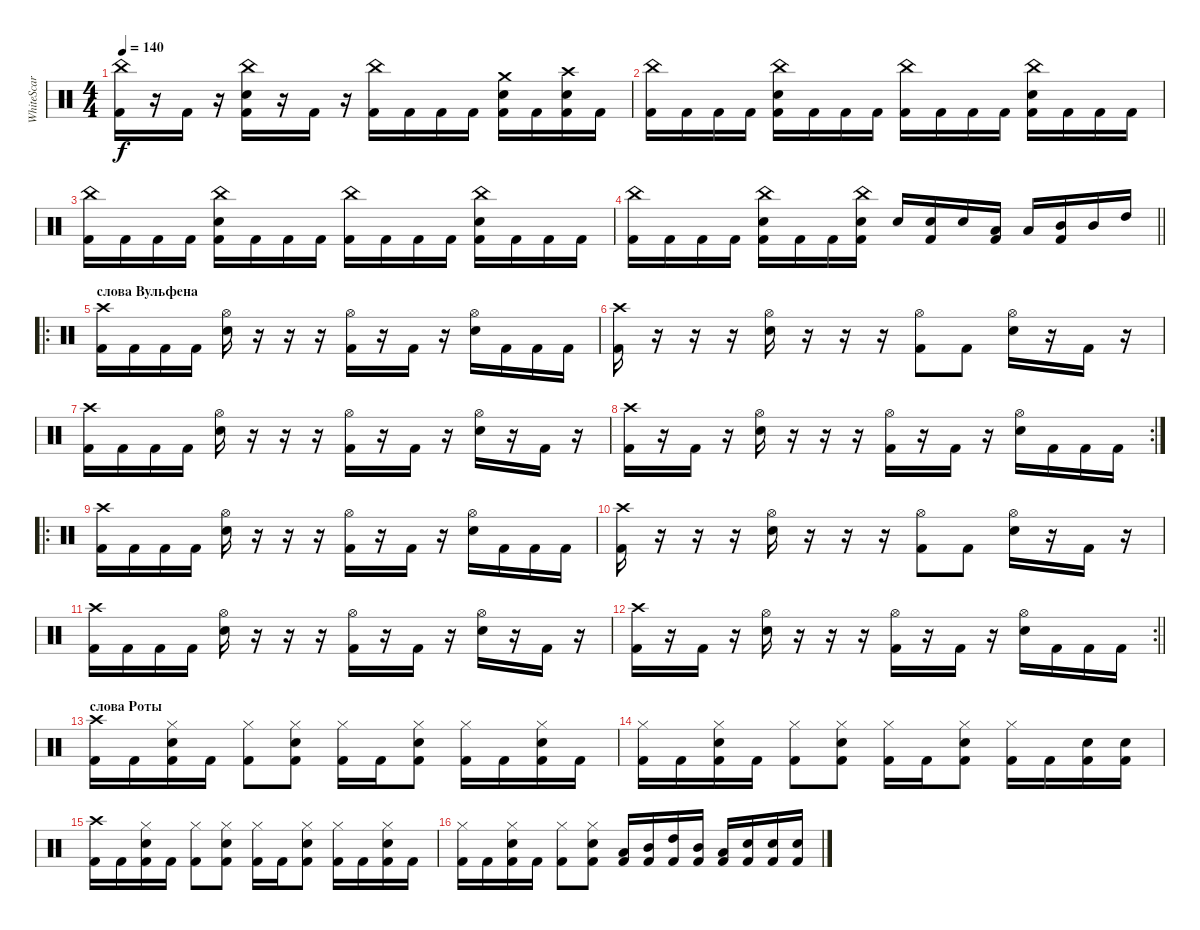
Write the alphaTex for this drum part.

\track ("WhiteScar " "WhiteScar ") {instrument percussion}
\staff {score}
\articulation defaults
\ts (4 4)
\tempo 140
\clef neutral
\ks c
("China (hit)" "Kick (hit) 2").16{dy f} r.16 "Kick (hit) 2".16 r.16 ("China (hit)" "Snare (hit) 2" "Kick (hit) 2").16 r.16 "Kick (hit) 2".16 r.16 ("China (hit)" "Kick (hit) 2").16 "Kick (hit) 2".16 "Kick (hit) 2".16 "Kick (hit) 2".16 ("Crash medium (hit)" "Snare (hit) 2" "Kick (hit) 2").16 "Kick (hit) 2".16 ("Crash high (hit)" "Snare (hit) 2" "Kick (hit) 2").16 "Kick (hit) 2".16 |
("China (hit)" "Kick (hit) 2").16 "Kick (hit) 2".16 "Kick (hit) 2".16 "Kick (hit) 2".16 ("China (hit)" "Snare (hit) 2" "Kick (hit) 2").16 "Kick (hit) 2".16 "Kick (hit) 2".16 "Kick (hit) 2".16 ("China (hit)" "Kick (hit) 2").16 "Kick (hit) 2".16 "Kick (hit) 2".16 "Kick (hit) 2".16 ("China (hit)" "Snare (hit) 2" "Kick (hit) 2").16 "Kick (hit) 2".16 "Kick (hit) 2".16 "Kick (hit) 2".16 |
("China (hit)" "Kick (hit) 2").16 "Kick (hit) 2".16 "Kick (hit) 2".16 "Kick (hit) 2".16 ("China (hit)" "Snare (hit) 2" "Kick (hit) 2").16 "Kick (hit) 2".16 "Kick (hit) 2".16 "Kick (hit) 2".16 ("China (hit)" "Kick (hit) 2").16 "Kick (hit) 2".16 "Kick (hit) 2".16 "Kick (hit) 2".16 ("China (hit)" "Snare (hit) 2" "Kick (hit) 2").16 "Kick (hit) 2".16 "Kick (hit) 2".16 "Kick (hit) 2".16 |
\barLineRight lightlight
("China (hit)" "Kick (hit) 2").16 "Kick (hit) 2".16 "Kick (hit) 2".16 "Kick (hit) 2".16 ("China (hit)" "Snare (hit) 2" "Kick (hit) 2").16 "Kick (hit) 2".16 "Kick (hit) 2".16 ("China (hit)" "Snare (hit) 2" "Kick (hit) 2").16 "Snare (hit) 2".16 ("Snare (hit) 2" "Kick (hit) 2").16 "Snare (hit) 2".16 ("Low Tom (hit)" "Kick (hit) 2").16 "Low Tom (hit)".16 ("Mid Tom (hit)" "Kick (hit) 2").16 "Mid Tom (hit)".16 "High Tom (hit)".16 |
\ro
\section ("" "слова Вульфена")
("Crash high (hit)" "Kick (hit) 2").16 "Kick (hit) 2".16 "Kick (hit) 2".16 "Kick (hit) 2".16 ("Hi-Hat (open)" "Snare (hit) 2").16 r.16 r.16 r.16 ("Hi-Hat (open)" "Kick (hit) 2").16 r.16 "Kick (hit) 2".16 r.16 ("Hi-Hat (open)" "Snare (hit) 2").16 "Kick (hit) 2".16 "Kick (hit) 2".16 "Kick (hit) 2".16 |
("Crash high (hit)" "Kick (hit) 2").16 r.16 r.16 r.16 ("Hi-Hat (open)" "Snare (hit) 2").16 r.16 r.16 r.16 ("Hi-Hat (open)" "Kick (hit) 2").8 "Kick (hit) 2".8 ("Hi-Hat (open)" "Snare (hit) 2").16 r.16 "Kick (hit) 2".16 r.16 |
("Crash high (hit)" "Kick (hit) 2").16 "Kick (hit) 2".16 "Kick (hit) 2".16 "Kick (hit) 2".16 ("Hi-Hat (open)" "Snare (hit) 2").16 r.16 r.16 r.16 ("Hi-Hat (open)" "Kick (hit) 2").16 r.16 "Kick (hit) 2".16 r.16 ("Hi-Hat (open)" "Snare (hit) 2").16 r.16 "Kick (hit) 2".16 r.16 |
\rc 2
("Crash high (hit)" "Kick (hit) 2").16 r.16 "Kick (hit) 2".16 r.16 ("Hi-Hat (open)" "Snare (hit) 2").16 r.16 r.16 r.16 ("Hi-Hat (open)" "Kick (hit) 2").16 r.16 "Kick (hit) 2".16 r.16 ("Hi-Hat (open)" "Snare (hit) 2").16 "Kick (hit) 2".16 "Kick (hit) 2".16 "Kick (hit) 2".16 |
\ro
("Crash high (hit)" "Kick (hit) 2").16 "Kick (hit) 2".16 "Kick (hit) 2".16 "Kick (hit) 2".16 ("Hi-Hat (open)" "Snare (hit) 2").16 r.16 r.16 r.16 ("Hi-Hat (open)" "Kick (hit) 2").16 r.16 "Kick (hit) 2".16 r.16 ("Hi-Hat (open)" "Snare (hit) 2").16 "Kick (hit) 2".16 "Kick (hit) 2".16 "Kick (hit) 2".16 |
("Crash high (hit)" "Kick (hit) 2").16 r.16 r.16 r.16 ("Hi-Hat (open)" "Snare (hit) 2").16 r.16 r.16 r.16 ("Hi-Hat (open)" "Kick (hit) 2").8 "Kick (hit) 2".8 ("Hi-Hat (open)" "Snare (hit) 2").16 r.16 "Kick (hit) 2".16 r.16 |
("Crash high (hit)" "Kick (hit) 2").16 "Kick (hit) 2".16 "Kick (hit) 2".16 "Kick (hit) 2".16 ("Hi-Hat (open)" "Snare (hit) 2").16 r.16 r.16 r.16 ("Hi-Hat (open)" "Kick (hit) 2").16 r.16 "Kick (hit) 2".16 r.16 ("Hi-Hat (open)" "Snare (hit) 2").16 r.16 "Kick (hit) 2".16 r.16 |
\rc 2
\barLineRight lightlight
("Crash high (hit)" "Kick (hit) 2").16 r.16 "Kick (hit) 2".16 r.16 ("Hi-Hat (open)" "Snare (hit) 2").16 r.16 r.16 r.16 ("Hi-Hat (open)" "Kick (hit) 2").16 r.16 "Kick (hit) 2".16 r.16 ("Hi-Hat (open)" "Snare (hit) 2").16 "Kick (hit) 2".16 "Kick (hit) 2".16 "Kick (hit) 2".16 |
\section ("" "слова Роты")
("Crash high (hit)" "Kick (hit) 2").16 "Kick (hit) 2".16 ("Snare (hit) 2" "Hi-Hat (closed)" "Kick (hit) 2").16 "Kick (hit) 2".16 ("Hi-Hat (closed)" "Kick (hit) 2").8 ("Snare (hit) 2" "Hi-Hat (closed)" "Kick (hit) 2").8 ("Hi-Hat (closed)" "Kick (hit) 2").16 "Kick (hit) 2".16 ("Snare (hit) 2" "Hi-Hat (closed)" "Kick (hit) 2").8 ("Hi-Hat (closed)" "Kick (hit) 2").16 "Kick (hit) 2".16 ("Snare (hit) 2" "Hi-Hat (closed)" "Kick (hit) 2").16 "Kick (hit) 2".16 |
("Hi-Hat (closed)" "Kick (hit) 2").16 "Kick (hit) 2".16 ("Snare (hit) 2" "Hi-Hat (closed)" "Kick (hit) 2").16 "Kick (hit) 2".16 ("Hi-Hat (closed)" "Kick (hit) 2").8 ("Snare (hit) 2" "Hi-Hat (closed)" "Kick (hit) 2").8 ("Hi-Hat (closed)" "Kick (hit) 2").16 "Kick (hit) 2".16 ("Snare (hit) 2" "Hi-Hat (closed)" "Kick (hit) 2").8 ("Hi-Hat (closed)" "Kick (hit) 2").16 "Kick (hit) 2".16 ("Snare (hit) 2" "Kick (hit) 2").16 ("Snare (hit) 2" "Kick (hit) 2").16 |
("Crash high (hit)" "Kick (hit) 2").16 "Kick (hit) 2".16 ("Snare (hit) 2" "Hi-Hat (closed)" "Kick (hit) 2").16 "Kick (hit) 2".16 ("Hi-Hat (closed)" "Kick (hit) 2").8 ("Snare (hit) 2" "Hi-Hat (closed)" "Kick (hit) 2").8 ("Hi-Hat (closed)" "Kick (hit) 2").16 "Kick (hit) 2".16 ("Snare (hit) 2" "Hi-Hat (closed)" "Kick (hit) 2").8 ("Hi-Hat (closed)" "Kick (hit) 2").16 "Kick (hit) 2".16 ("Snare (hit) 2" "Hi-Hat (closed)" "Kick (hit) 2").16 "Kick (hit) 2".16 |
("Hi-Hat (closed)" "Kick (hit) 2").16 "Kick (hit) 2".16 ("Snare (hit) 2" "Hi-Hat (closed)" "Kick (hit) 2").16 "Kick (hit) 2".16 ("Hi-Hat (closed)" "Kick (hit) 2").8 ("Snare (hit) 2" "Hi-Hat (closed)" "Kick (hit) 2").8 ("Low Tom (hit)" "Kick (hit) 2").16 ("Mid Tom (hit)" "Kick (hit) 2").16 ("High Tom (hit)" "Kick (hit) 2").16 ("Mid Tom (hit)" "Kick (hit) 2").16 ("Low Tom (hit)" "Kick (hit) 2").16 ("Snare (hit) 2" "Kick (hit) 2").16 ("Snare (hit) 2" "Kick (hit) 2").16 ("Snare (hit) 2" "Kick (hit) 2").16
